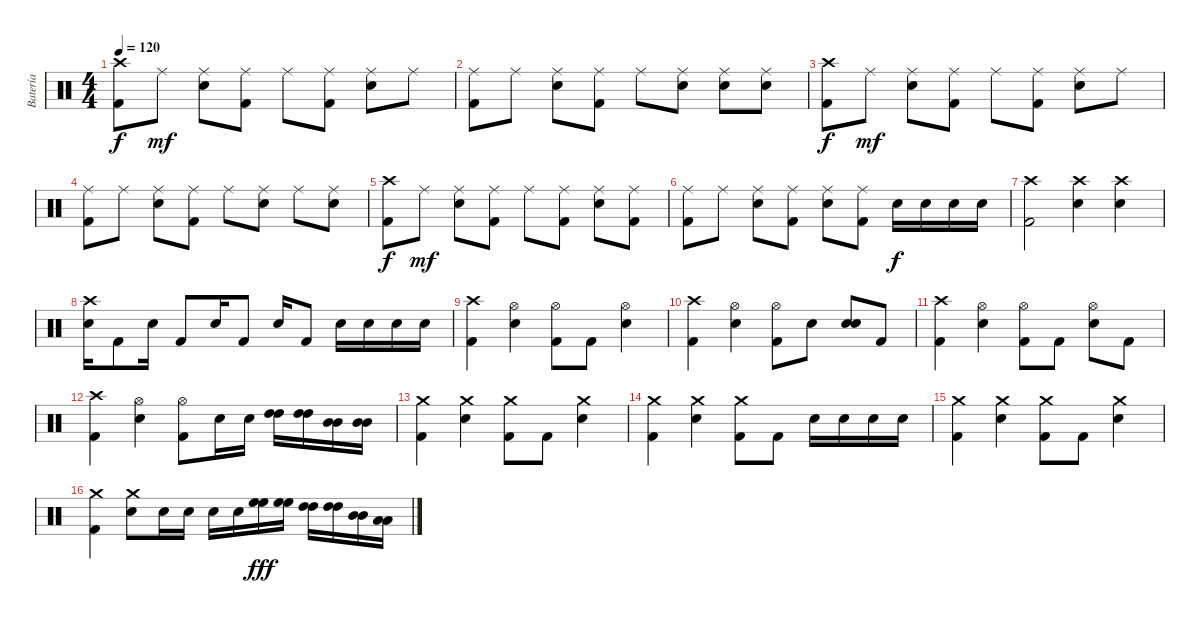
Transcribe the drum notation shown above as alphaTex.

\track ("Batería" "Batería") {instrument percussion}
\staff {score}
\articulation defaults
\ts (4 4)
\tempo 120
\clef neutral
\ks c
("Crash high (hit)" "Kick (hit) 2").8{dy f} "Ride (middle)".8{dy mf} ("Ride (middle)" "Snare (hit) 2").8 ("Ride (middle)" "Kick (hit) 2").8 "Ride (middle)".8 ("Ride (middle)" "Kick (hit) 2").8 ("Ride (middle)" "Snare (hit) 2").8 "Ride (middle)".8 |
("Ride (middle)" "Kick (hit) 2").8 "Ride (middle)".8 ("Ride (middle)" "Snare (hit) 2").8 ("Ride (middle)" "Kick (hit) 2").8 "Ride (middle)".8 ("Ride (middle)" "Snare (hit) 2").8 ("Ride (middle)" "Snare (hit) 2").8 ("Ride (middle)" "Snare (hit) 2").8 |
("Crash high (hit)" "Kick (hit) 2").8{dy f} "Ride (middle)".8{dy mf} ("Ride (middle)" "Snare (hit) 2").8 ("Ride (middle)" "Kick (hit) 2").8 "Ride (middle)".8 ("Ride (middle)" "Kick (hit) 2").8 ("Ride (middle)" "Snare (hit) 2").8 "Ride (middle)".8 |
("Ride (middle)" "Kick (hit) 2").8 "Ride (middle)".8 ("Ride (middle)" "Snare (hit) 2").8 ("Ride (middle)" "Kick (hit) 2").8 "Ride (middle)".8 ("Ride (middle)" "Snare (hit) 2").8 "Ride (middle)".8 ("Ride (middle)" "Snare (hit) 2").8 |
("Crash high (hit)" "Kick (hit) 2").8{dy f} "Ride (middle)".8{dy mf} ("Ride (middle)" "Snare (hit) 2").8 ("Ride (middle)" "Kick (hit) 2").8 "Ride (middle)".8 ("Ride (middle)" "Kick (hit) 2").8 ("Ride (middle)" "Snare (hit) 2").8 ("Ride (middle)" "Kick (hit) 2").8 |
("Ride (middle)" "Kick (hit) 2").8 "Ride (middle)".8 ("Ride (middle)" "Snare (hit) 2").8 ("Ride (middle)" "Kick (hit) 2").8 ("Ride (middle)" "Snare (hit) 2").8 ("Ride (middle)" "Kick (hit) 2").8 "Snare (hit) 2".16{dy f} "Snare (hit) 2".16 "Snare (hit) 2".16 "Snare (hit) 2".16 |
("Crash high (hit)" "Kick (hit) 2").2 ("Crash high (hit)" "Snare (hit) 2").4 ("Crash high (hit)" "Snare (hit) 2").4 |
("Crash high (hit)" "Snare (hit) 2").16 "Kick (hit) 2".8 "Snare (hit) 2".16 "Kick (hit) 2".8 "Snare (hit) 2".16 "Kick (hit) 2".8 "Snare (hit) 2".16 "Kick (hit) 2".8 "Snare (hit) 2".16 "Snare (hit) 2".16 "Snare (hit) 2".16 "Snare (hit) 2".16 |
("Crash high (hit)" "Kick (hit) 2").4 ("Hi-Hat (open)" "Snare (hit) 2").4 ("Hi-Hat (open)" "Kick (hit) 2").8 "Kick (hit) 2".8 ("Hi-Hat (open)" "Snare (hit) 2").4 |
("Crash high (hit)" "Kick (hit) 2").4 ("Hi-Hat (open)" "Snare (hit) 2").4 ("Hi-Hat (open)" "Kick (hit) 2").8 "Snare (hit) 2".8 ("Snare (hit) 2" "Snare (hit) 2").8{bd 60} "Kick (hit) 2".8 |
("Crash high (hit)" "Kick (hit) 2").4 ("Hi-Hat (open)" "Snare (hit) 2").4 ("Hi-Hat (open)" "Kick (hit) 2").8 "Kick (hit) 2".8 ("Hi-Hat (open)" "Snare (hit) 2").8 "Kick (hit) 2".8 |
("Crash high (hit)" "Kick (hit) 2").4 ("Hi-Hat (open)" "Snare (hit) 2").4 ("Hi-Hat (open)" "Kick (hit) 2").8 "Snare (hit) 2".16 "Snare (hit) 2".16 ("High Tom (hit)" "High Tom (hit)").16 ("High Tom (hit)" "High Tom (hit)").16 ("Mid Tom (hit)" "Mid Tom (hit)").16 ("Mid Tom (hit)" "Mid Tom (hit)").16 |
("Crash medium (hit)" "Kick (hit) 2").4 ("Crash medium (hit)" "Snare (hit) 2").4 ("Crash medium (hit)" "Kick (hit) 2").8 "Kick (hit) 2".8 ("Crash medium (hit)" "Snare (hit) 2").4 |
("Crash medium (hit)" "Kick (hit) 2").4 ("Crash medium (hit)" "Snare (hit) 2").4 ("Crash medium (hit)" "Kick (hit) 2").8 "Kick (hit) 2".8 "Snare (hit) 2".16 "Snare (hit) 2".16 "Snare (hit) 2".16 "Snare (hit) 2".16 |
("Crash medium (hit)" "Kick (hit) 2").4 ("Crash medium (hit)" "Snare (hit) 2").4 ("Crash medium (hit)" "Kick (hit) 2").8 "Kick (hit) 2".8 ("Crash medium (hit)" "Snare (hit) 2").4 |
("Crash medium (hit)" "Kick (hit) 2").4 ("Crash medium (hit)" "Snare (hit) 2").8 "Snare (hit) 2".16 "Snare (hit) 2".16 "Snare (hit) 2".16 "Snare (hit) 2".16 ("High Floor Tom (hit)" "High Floor Tom (hit)").16{dy fff} ("High Floor Tom (hit)" "High Floor Tom (hit)").16 ("High Tom (hit)" "High Tom (hit)").16 ("High Tom (hit)" "High Tom (hit)").16 ("Mid Tom (hit)" "Mid Tom (hit)").16 ("Low Tom (hit)" "Low Tom (hit)").16
